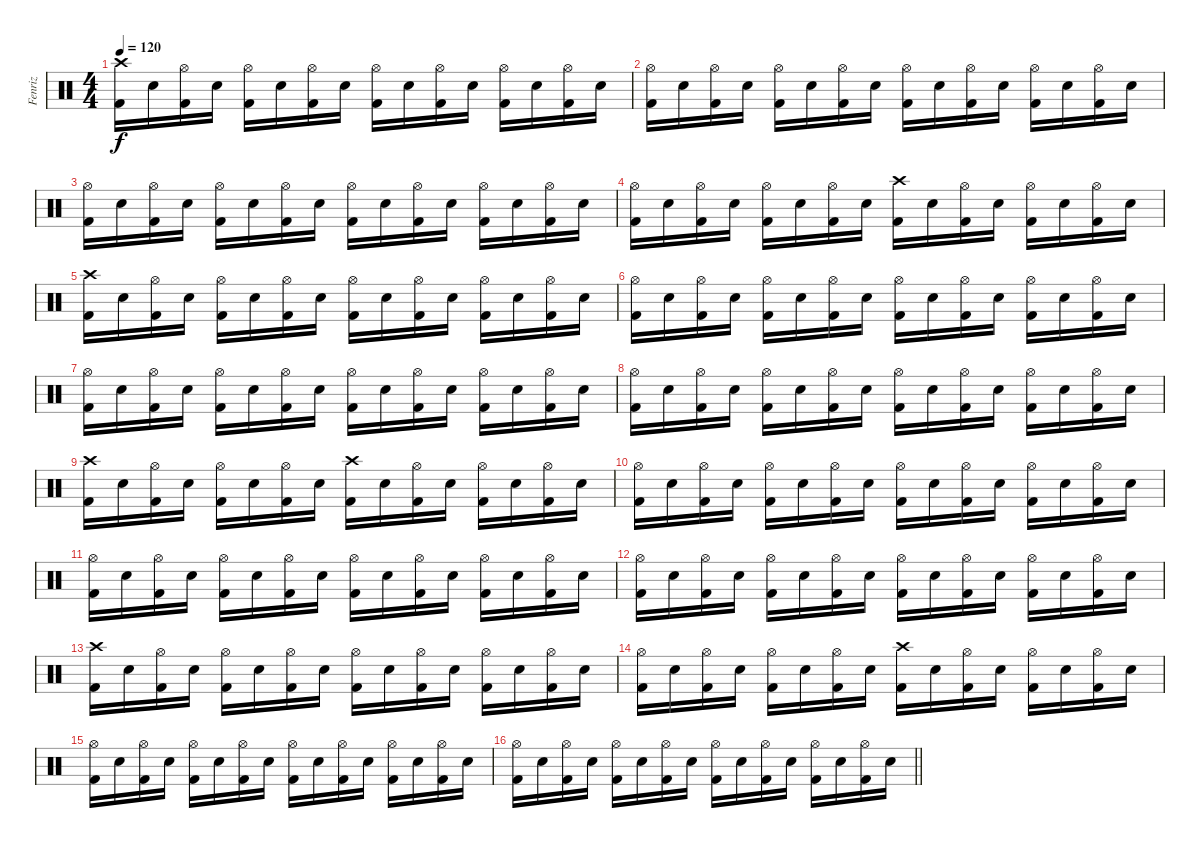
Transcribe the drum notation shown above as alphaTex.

\track ("Fenriz" "Fenriz") {instrument percussion}
\staff {score}
\articulation defaults
\ts (4 4)
\tempo 120
\clef neutral
\ks c
("Kick (hit) 2" "Crash high (hit)").16{dy f} "Electric Snare (hit)".16 ("Kick (hit) 2" "Hi-Hat (open)").16 "Electric Snare (hit)".16 ("Kick (hit) 2" "Hi-Hat (open)").16 "Electric Snare (hit)".16 ("Kick (hit) 2" "Hi-Hat (open)").16 "Electric Snare (hit)".16 ("Kick (hit) 2" "Hi-Hat (open)").16 "Electric Snare (hit)".16 ("Kick (hit) 2" "Hi-Hat (open)").16 "Electric Snare (hit)".16 ("Kick (hit) 2" "Hi-Hat (open)").16 "Electric Snare (hit)".16 ("Kick (hit) 2" "Hi-Hat (open)").16 "Electric Snare (hit)".16 |
("Kick (hit) 2" "Hi-Hat (open)").16 "Electric Snare (hit)".16 ("Kick (hit) 2" "Hi-Hat (open)").16 "Electric Snare (hit)".16 ("Kick (hit) 2" "Hi-Hat (open)").16 "Electric Snare (hit)".16 ("Kick (hit) 2" "Hi-Hat (open)").16 "Electric Snare (hit)".16 ("Kick (hit) 2" "Hi-Hat (open)").16 "Electric Snare (hit)".16 ("Kick (hit) 2" "Hi-Hat (open)").16 "Electric Snare (hit)".16 ("Kick (hit) 2" "Hi-Hat (open)").16 "Electric Snare (hit)".16 ("Kick (hit) 2" "Hi-Hat (open)").16 "Electric Snare (hit)".16 |
("Kick (hit) 2" "Hi-Hat (open)").16 "Electric Snare (hit)".16 ("Kick (hit) 2" "Hi-Hat (open)").16 "Electric Snare (hit)".16 ("Kick (hit) 2" "Hi-Hat (open)").16 "Electric Snare (hit)".16 ("Kick (hit) 2" "Hi-Hat (open)").16 "Electric Snare (hit)".16 ("Kick (hit) 2" "Hi-Hat (open)").16 "Electric Snare (hit)".16 ("Kick (hit) 2" "Hi-Hat (open)").16 "Electric Snare (hit)".16 ("Kick (hit) 2" "Hi-Hat (open)").16 "Electric Snare (hit)".16 ("Kick (hit) 2" "Hi-Hat (open)").16 "Electric Snare (hit)".16 |
("Kick (hit) 2" "Hi-Hat (open)").16 "Electric Snare (hit)".16 ("Kick (hit) 2" "Hi-Hat (open)").16 "Electric Snare (hit)".16 ("Kick (hit) 2" "Hi-Hat (open)").16 "Electric Snare (hit)".16 ("Kick (hit) 2" "Hi-Hat (open)").16 "Electric Snare (hit)".16 ("Kick (hit) 2" "Crash high (hit)").16 "Electric Snare (hit)".16 ("Kick (hit) 2" "Hi-Hat (open)").16 "Electric Snare (hit)".16 ("Kick (hit) 2" "Hi-Hat (open)").16 "Electric Snare (hit)".16 ("Kick (hit) 2" "Hi-Hat (open)").16 "Electric Snare (hit)".16 |
("Kick (hit) 2" "Crash high (hit)").16 "Electric Snare (hit)".16 ("Kick (hit) 2" "Hi-Hat (open)").16 "Electric Snare (hit)".16 ("Kick (hit) 2" "Hi-Hat (open)").16 "Electric Snare (hit)".16 ("Kick (hit) 2" "Hi-Hat (open)").16 "Electric Snare (hit)".16 ("Kick (hit) 2" "Hi-Hat (open)").16 "Electric Snare (hit)".16 ("Kick (hit) 2" "Hi-Hat (open)").16 "Electric Snare (hit)".16 ("Kick (hit) 2" "Hi-Hat (open)").16 "Electric Snare (hit)".16 ("Kick (hit) 2" "Hi-Hat (open)").16 "Electric Snare (hit)".16 |
("Kick (hit) 2" "Hi-Hat (open)").16 "Electric Snare (hit)".16 ("Kick (hit) 2" "Hi-Hat (open)").16 "Electric Snare (hit)".16 ("Kick (hit) 2" "Hi-Hat (open)").16 "Electric Snare (hit)".16 ("Kick (hit) 2" "Hi-Hat (open)").16 "Electric Snare (hit)".16 ("Kick (hit) 2" "Hi-Hat (open)").16 "Electric Snare (hit)".16 ("Kick (hit) 2" "Hi-Hat (open)").16 "Electric Snare (hit)".16 ("Kick (hit) 2" "Hi-Hat (open)").16 "Electric Snare (hit)".16 ("Kick (hit) 2" "Hi-Hat (open)").16 "Electric Snare (hit)".16 |
("Kick (hit) 2" "Hi-Hat (open)").16 "Electric Snare (hit)".16 ("Kick (hit) 2" "Hi-Hat (open)").16 "Electric Snare (hit)".16 ("Kick (hit) 2" "Hi-Hat (open)").16 "Electric Snare (hit)".16 ("Kick (hit) 2" "Hi-Hat (open)").16 "Electric Snare (hit)".16 ("Kick (hit) 2" "Hi-Hat (open)").16 "Electric Snare (hit)".16 ("Kick (hit) 2" "Hi-Hat (open)").16 "Electric Snare (hit)".16 ("Kick (hit) 2" "Hi-Hat (open)").16 "Electric Snare (hit)".16 ("Kick (hit) 2" "Hi-Hat (open)").16 "Electric Snare (hit)".16 |
("Kick (hit) 2" "Hi-Hat (open)").16 "Electric Snare (hit)".16 ("Kick (hit) 2" "Hi-Hat (open)").16 "Electric Snare (hit)".16 ("Kick (hit) 2" "Hi-Hat (open)").16 "Electric Snare (hit)".16 ("Kick (hit) 2" "Hi-Hat (open)").16 "Electric Snare (hit)".16 ("Kick (hit) 2" "Hi-Hat (open)").16 "Electric Snare (hit)".16 ("Kick (hit) 2" "Hi-Hat (open)").16 "Electric Snare (hit)".16 ("Kick (hit) 2" "Hi-Hat (open)").16 "Electric Snare (hit)".16 ("Kick (hit) 2" "Hi-Hat (open)").16 "Electric Snare (hit)".16 |
("Kick (hit) 2" "Crash high (hit)").16 "Electric Snare (hit)".16 ("Kick (hit) 2" "Hi-Hat (open)").16 "Electric Snare (hit)".16 ("Kick (hit) 2" "Hi-Hat (open)").16 "Electric Snare (hit)".16 ("Kick (hit) 2" "Hi-Hat (open)").16 "Electric Snare (hit)".16 ("Kick (hit) 2" "Crash high (hit)").16 "Electric Snare (hit)".16 ("Kick (hit) 2" "Hi-Hat (open)").16 "Electric Snare (hit)".16 ("Kick (hit) 2" "Hi-Hat (open)").16 "Electric Snare (hit)".16 ("Kick (hit) 2" "Hi-Hat (open)").16 "Electric Snare (hit)".16 |
("Kick (hit) 2" "Hi-Hat (open)").16 "Electric Snare (hit)".16 ("Kick (hit) 2" "Hi-Hat (open)").16 "Electric Snare (hit)".16 ("Kick (hit) 2" "Hi-Hat (open)").16 "Electric Snare (hit)".16 ("Kick (hit) 2" "Hi-Hat (open)").16 "Electric Snare (hit)".16 ("Kick (hit) 2" "Hi-Hat (open)").16 "Electric Snare (hit)".16 ("Kick (hit) 2" "Hi-Hat (open)").16 "Electric Snare (hit)".16 ("Kick (hit) 2" "Hi-Hat (open)").16 "Electric Snare (hit)".16 ("Kick (hit) 2" "Hi-Hat (open)").16 "Electric Snare (hit)".16 |
("Kick (hit) 2" "Hi-Hat (open)").16 "Electric Snare (hit)".16 ("Kick (hit) 2" "Hi-Hat (open)").16 "Electric Snare (hit)".16 ("Kick (hit) 2" "Hi-Hat (open)").16 "Electric Snare (hit)".16 ("Kick (hit) 2" "Hi-Hat (open)").16 "Electric Snare (hit)".16 ("Kick (hit) 2" "Hi-Hat (open)").16 "Electric Snare (hit)".16 ("Kick (hit) 2" "Hi-Hat (open)").16 "Electric Snare (hit)".16 ("Kick (hit) 2" "Hi-Hat (open)").16 "Electric Snare (hit)".16 ("Kick (hit) 2" "Hi-Hat (open)").16 "Electric Snare (hit)".16 |
("Kick (hit) 2" "Hi-Hat (open)").16 "Electric Snare (hit)".16 ("Kick (hit) 2" "Hi-Hat (open)").16 "Electric Snare (hit)".16 ("Kick (hit) 2" "Hi-Hat (open)").16 "Electric Snare (hit)".16 ("Kick (hit) 2" "Hi-Hat (open)").16 "Electric Snare (hit)".16 ("Kick (hit) 2" "Hi-Hat (open)").16 "Electric Snare (hit)".16 ("Kick (hit) 2" "Hi-Hat (open)").16 "Electric Snare (hit)".16 ("Kick (hit) 2" "Hi-Hat (open)").16 "Electric Snare (hit)".16 ("Kick (hit) 2" "Hi-Hat (open)").16 "Electric Snare (hit)".16 |
("Kick (hit) 2" "Crash high (hit)").16 "Electric Snare (hit)".16 ("Kick (hit) 2" "Hi-Hat (open)").16 "Electric Snare (hit)".16 ("Kick (hit) 2" "Hi-Hat (open)").16 "Electric Snare (hit)".16 ("Kick (hit) 2" "Hi-Hat (open)").16 "Electric Snare (hit)".16 ("Kick (hit) 2" "Hi-Hat (open)").16 "Electric Snare (hit)".16 ("Kick (hit) 2" "Hi-Hat (open)").16 "Electric Snare (hit)".16 ("Kick (hit) 2" "Hi-Hat (open)").16 "Electric Snare (hit)".16 ("Kick (hit) 2" "Hi-Hat (open)").16 "Electric Snare (hit)".16 |
("Kick (hit) 2" "Hi-Hat (open)").16 "Electric Snare (hit)".16 ("Kick (hit) 2" "Hi-Hat (open)").16 "Electric Snare (hit)".16 ("Kick (hit) 2" "Hi-Hat (open)").16 "Electric Snare (hit)".16 ("Kick (hit) 2" "Hi-Hat (open)").16 "Electric Snare (hit)".16 ("Kick (hit) 2" "Crash high (hit)").16 "Electric Snare (hit)".16 ("Kick (hit) 2" "Hi-Hat (open)").16 "Electric Snare (hit)".16 ("Kick (hit) 2" "Hi-Hat (open)").16 "Electric Snare (hit)".16 ("Kick (hit) 2" "Hi-Hat (open)").16 "Electric Snare (hit)".16 |
("Kick (hit) 2" "Hi-Hat (open)").16 "Electric Snare (hit)".16 ("Kick (hit) 2" "Hi-Hat (open)").16 "Electric Snare (hit)".16 ("Kick (hit) 2" "Hi-Hat (open)").16 "Electric Snare (hit)".16 ("Kick (hit) 2" "Hi-Hat (open)").16 "Electric Snare (hit)".16 ("Kick (hit) 2" "Hi-Hat (open)").16 "Electric Snare (hit)".16 ("Kick (hit) 2" "Hi-Hat (open)").16 "Electric Snare (hit)".16 ("Kick (hit) 2" "Hi-Hat (open)").16 "Electric Snare (hit)".16 ("Kick (hit) 2" "Hi-Hat (open)").16 "Electric Snare (hit)".16 |
\barLineRight lightlight
("Kick (hit) 2" "Hi-Hat (open)").16 "Electric Snare (hit)".16 ("Kick (hit) 2" "Hi-Hat (open)").16 "Electric Snare (hit)".16 ("Kick (hit) 2" "Hi-Hat (open)").16 "Electric Snare (hit)".16 ("Kick (hit) 2" "Hi-Hat (open)").16 "Electric Snare (hit)".16 ("Kick (hit) 2" "Hi-Hat (open)").16 "Electric Snare (hit)".16 ("Kick (hit) 2" "Hi-Hat (open)").16 "Electric Snare (hit)".16 ("Kick (hit) 2" "Hi-Hat (open)").16 "Electric Snare (hit)".16 ("Kick (hit) 2" "Hi-Hat (open)").16 "Electric Snare (hit)".16
